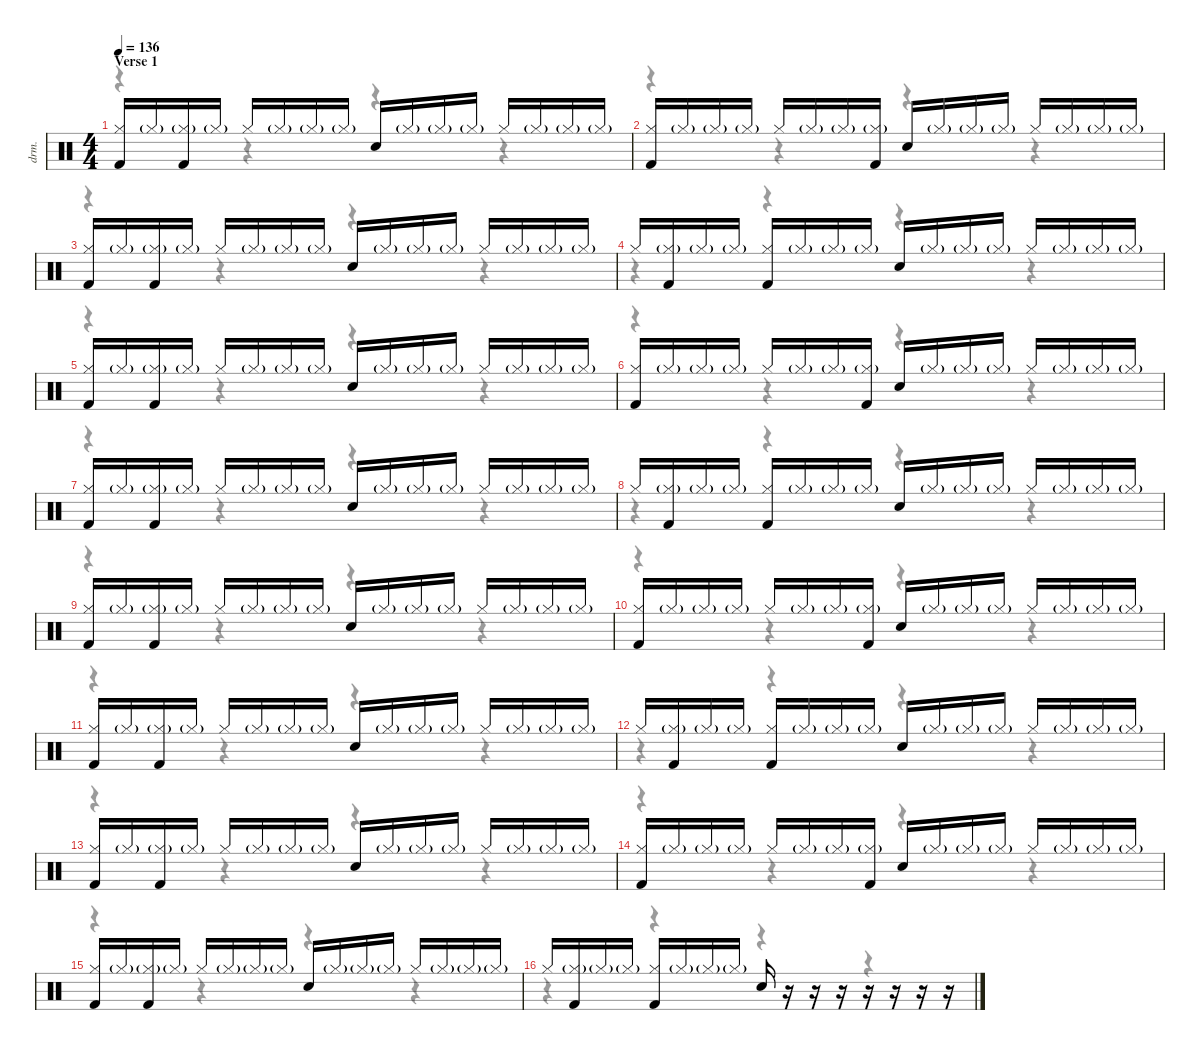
\defaultSystemsLayout 4
\hideDynamics
\bracketExtendMode nobrackets
\track ("Drums" "drm.") {instrument percussion}
\staff {score}
\articulation defaults
\voice
\ts (4 4)
\section ("" "Verse 1")
\tempo 136
\clef neutral
\ks c
("Hi-Hat (closed)" "Kick (hit) 2").16{dy f beam Up} "Hi-Hat (closed)"{g}.16{beam Up} ("Hi-Hat (closed)"{g} "Kick (hit) 2").16{beam Up} "Hi-Hat (closed)"{g}.16{dy ff beam Up} "Hi-Hat (closed)".16{dy f beam Up} "Hi-Hat (closed)"{g}.16{beam Up} "Hi-Hat (closed)"{g}.16{dy ff beam Up} "Hi-Hat (closed)"{g}.16{beam Up} "Snare (hit) 2".16{dy f beam Up} "Hi-Hat (closed)"{g}.16{beam Up} "Hi-Hat (closed)"{g}.16{dy ff beam Up} "Hi-Hat (closed)"{g}.16{beam Up} "Hi-Hat (closed)".16{dy f beam Up} "Hi-Hat (closed)"{g}.16{beam Up} "Hi-Hat (closed)"{g}.16{dy ff beam Up} "Hi-Hat (closed)"{g}.16{beam Up} |
("Hi-Hat (closed)" "Kick (hit) 2").16{dy f beam Up} "Hi-Hat (closed)"{g}.16{beam Up} "Hi-Hat (closed)"{g}.16{dy ff beam Up} "Hi-Hat (closed)"{g}.16{beam Up} "Hi-Hat (closed)".16{dy f beam Up} "Hi-Hat (closed)"{g}.16{beam Up} "Hi-Hat (closed)"{g}.16{dy ff beam Up} ("Hi-Hat (closed)"{g} "Kick (hit) 2").16{dy f beam Up} "Snare (hit) 2".16{beam Up} "Hi-Hat (closed)"{g}.16{beam Up} "Hi-Hat (closed)"{g}.16{dy ff beam Up} "Hi-Hat (closed)"{g}.16{beam Up} "Hi-Hat (closed)".16{dy f beam Up} "Hi-Hat (closed)"{g}.16{beam Up} "Hi-Hat (closed)"{g}.16{dy ff beam Up} "Hi-Hat (closed)"{g}.16{beam Up} |
("Hi-Hat (closed)" "Kick (hit) 2").16{dy f beam Up} "Hi-Hat (closed)"{g}.16{beam Up} ("Hi-Hat (closed)"{g} "Kick (hit) 2").16{beam Up} "Hi-Hat (closed)"{g}.16{dy ff beam Up} "Hi-Hat (closed)".16{dy f beam Up} "Hi-Hat (closed)"{g}.16{beam Up} "Hi-Hat (closed)"{g}.16{dy ff beam Up} "Hi-Hat (closed)"{g}.16{beam Up} "Snare (hit) 2".16{dy f beam Up} "Hi-Hat (closed)"{g}.16{beam Up} "Hi-Hat (closed)"{g}.16{dy ff beam Up} "Hi-Hat (closed)"{g}.16{beam Up} "Hi-Hat (closed)".16{dy f beam Up} "Hi-Hat (closed)"{g}.16{beam Up} "Hi-Hat (closed)"{g}.16{dy ff beam Up} "Hi-Hat (closed)"{g}.16{beam Up} |
"Hi-Hat (closed)".16{dy f beam Up} ("Hi-Hat (closed)"{g} "Kick (hit) 2").16{beam Up} "Hi-Hat (closed)"{g}.16{dy ff beam Up} "Hi-Hat (closed)"{g}.16{beam Up} ("Hi-Hat (closed)" "Kick (hit) 2").16{dy f beam Up} "Hi-Hat (closed)"{g}.16{beam Up} "Hi-Hat (closed)"{g}.16{dy ff beam Up} "Hi-Hat (closed)"{g}.16{beam Up} "Snare (hit) 2".16{dy f beam Up} "Hi-Hat (closed)"{g}.16{beam Up} "Hi-Hat (closed)"{g}.16{dy ff beam Up} "Hi-Hat (closed)"{g}.16{beam Up} "Hi-Hat (closed)".16{dy f beam Up} "Hi-Hat (closed)"{g}.16{beam Up} "Hi-Hat (closed)"{g}.16{dy ff beam Up} "Hi-Hat (closed)"{g}.16{beam Up} |
("Hi-Hat (closed)" "Kick (hit) 2").16{dy f beam Up} "Hi-Hat (closed)"{g}.16{beam Up} ("Hi-Hat (closed)"{g} "Kick (hit) 2").16{beam Up} "Hi-Hat (closed)"{g}.16{dy ff beam Up} "Hi-Hat (closed)".16{dy f beam Up} "Hi-Hat (closed)"{g}.16{beam Up} "Hi-Hat (closed)"{g}.16{dy ff beam Up} "Hi-Hat (closed)"{g}.16{beam Up} "Snare (hit) 2".16{dy f beam Up} "Hi-Hat (closed)"{g}.16{beam Up} "Hi-Hat (closed)"{g}.16{dy ff beam Up} "Hi-Hat (closed)"{g}.16{beam Up} "Hi-Hat (closed)".16{dy f beam Up} "Hi-Hat (closed)"{g}.16{beam Up} "Hi-Hat (closed)"{g}.16{dy ff beam Up} "Hi-Hat (closed)"{g}.16{beam Up} |
("Hi-Hat (closed)" "Kick (hit) 2").16{dy f beam Up} "Hi-Hat (closed)"{g}.16{beam Up} "Hi-Hat (closed)"{g}.16{dy ff beam Up} "Hi-Hat (closed)"{g}.16{beam Up} "Hi-Hat (closed)".16{dy f beam Up} "Hi-Hat (closed)"{g}.16{beam Up} "Hi-Hat (closed)"{g}.16{dy ff beam Up} ("Hi-Hat (closed)"{g} "Kick (hit) 2").16{dy f beam Up} "Snare (hit) 2".16{beam Up} "Hi-Hat (closed)"{g}.16{beam Up} "Hi-Hat (closed)"{g}.16{dy ff beam Up} "Hi-Hat (closed)"{g}.16{beam Up} "Hi-Hat (closed)".16{dy f beam Up} "Hi-Hat (closed)"{g}.16{beam Up} "Hi-Hat (closed)"{g}.16{dy ff beam Up} "Hi-Hat (closed)"{g}.16{beam Up} |
("Hi-Hat (closed)" "Kick (hit) 2").16{dy f beam Up} "Hi-Hat (closed)"{g}.16{beam Up} ("Hi-Hat (closed)"{g} "Kick (hit) 2").16{beam Up} "Hi-Hat (closed)"{g}.16{dy ff beam Up} "Hi-Hat (closed)".16{dy f beam Up} "Hi-Hat (closed)"{g}.16{beam Up} "Hi-Hat (closed)"{g}.16{dy ff beam Up} "Hi-Hat (closed)"{g}.16{beam Up} "Snare (hit) 2".16{dy f beam Up} "Hi-Hat (closed)"{g}.16{beam Up} "Hi-Hat (closed)"{g}.16{dy ff beam Up} "Hi-Hat (closed)"{g}.16{beam Up} "Hi-Hat (closed)".16{dy f beam Up} "Hi-Hat (closed)"{g}.16{beam Up} "Hi-Hat (closed)"{g}.16{dy ff beam Up} "Hi-Hat (closed)"{g}.16{beam Up} |
"Hi-Hat (closed)".16{dy f beam Up} ("Hi-Hat (closed)"{g} "Kick (hit) 2").16{beam Up} "Hi-Hat (closed)"{g}.16{dy ff beam Up} "Hi-Hat (closed)"{g}.16{beam Up} ("Hi-Hat (closed)" "Kick (hit) 2").16{dy f beam Up} "Hi-Hat (closed)"{g}.16{beam Up} "Hi-Hat (closed)"{g}.16{dy ff beam Up} "Hi-Hat (closed)"{g}.16{beam Up} "Snare (hit) 2".16{dy f beam Up} "Hi-Hat (closed)"{g}.16{beam Up} "Hi-Hat (closed)"{g}.16{dy ff beam Up} "Hi-Hat (closed)"{g}.16{beam Up} "Hi-Hat (closed)".16{dy f beam Up} "Hi-Hat (closed)"{g}.16{beam Up} "Hi-Hat (closed)"{g}.16{dy ff beam Up} "Hi-Hat (closed)"{g}.16{beam Up} |
("Hi-Hat (closed)" "Kick (hit) 2").16{dy f beam Up} "Hi-Hat (closed)"{g}.16{beam Up} ("Hi-Hat (closed)"{g} "Kick (hit) 2").16{beam Up} "Hi-Hat (closed)"{g}.16{dy ff beam Up} "Hi-Hat (closed)".16{dy f beam Up} "Hi-Hat (closed)"{g}.16{beam Up} "Hi-Hat (closed)"{g}.16{dy ff beam Up} "Hi-Hat (closed)"{g}.16{beam Up} "Snare (hit) 2".16{dy f beam Up} "Hi-Hat (closed)"{g}.16{beam Up} "Hi-Hat (closed)"{g}.16{dy ff beam Up} "Hi-Hat (closed)"{g}.16{beam Up} "Hi-Hat (closed)".16{dy f beam Up} "Hi-Hat (closed)"{g}.16{beam Up} "Hi-Hat (closed)"{g}.16{dy ff beam Up} "Hi-Hat (closed)"{g}.16{beam Up} |
("Hi-Hat (closed)" "Kick (hit) 2").16{dy f beam Up} "Hi-Hat (closed)"{g}.16{beam Up} "Hi-Hat (closed)"{g}.16{dy ff beam Up} "Hi-Hat (closed)"{g}.16{beam Up} "Hi-Hat (closed)".16{dy f beam Up} "Hi-Hat (closed)"{g}.16{beam Up} "Hi-Hat (closed)"{g}.16{dy ff beam Up} ("Hi-Hat (closed)"{g} "Kick (hit) 2").16{dy f beam Up} "Snare (hit) 2".16{beam Up} "Hi-Hat (closed)"{g}.16{beam Up} "Hi-Hat (closed)"{g}.16{dy ff beam Up} "Hi-Hat (closed)"{g}.16{beam Up} "Hi-Hat (closed)".16{dy f beam Up} "Hi-Hat (closed)"{g}.16{beam Up} "Hi-Hat (closed)"{g}.16{dy ff beam Up} "Hi-Hat (closed)"{g}.16{beam Up} |
("Hi-Hat (closed)" "Kick (hit) 2").16{dy f beam Up} "Hi-Hat (closed)"{g}.16{beam Up} ("Hi-Hat (closed)"{g} "Kick (hit) 2").16{beam Up} "Hi-Hat (closed)"{g}.16{dy ff beam Up} "Hi-Hat (closed)".16{dy f beam Up} "Hi-Hat (closed)"{g}.16{beam Up} "Hi-Hat (closed)"{g}.16{dy ff beam Up} "Hi-Hat (closed)"{g}.16{beam Up} "Snare (hit) 2".16{dy f beam Up} "Hi-Hat (closed)"{g}.16{beam Up} "Hi-Hat (closed)"{g}.16{dy ff beam Up} "Hi-Hat (closed)"{g}.16{beam Up} "Hi-Hat (closed)".16{dy f beam Up} "Hi-Hat (closed)"{g}.16{beam Up} "Hi-Hat (closed)"{g}.16{dy ff beam Up} "Hi-Hat (closed)"{g}.16{beam Up} |
"Hi-Hat (closed)".16{dy f beam Up} ("Hi-Hat (closed)"{g} "Kick (hit) 2").16{beam Up} "Hi-Hat (closed)"{g}.16{dy ff beam Up} "Hi-Hat (closed)"{g}.16{beam Up} ("Hi-Hat (closed)" "Kick (hit) 2").16{dy f beam Up} "Hi-Hat (closed)"{g}.16{beam Up} "Hi-Hat (closed)"{g}.16{dy ff beam Up} "Hi-Hat (closed)"{g}.16{beam Up} "Snare (hit) 2".16{dy f beam Up} "Hi-Hat (closed)"{g}.16{beam Up} "Hi-Hat (closed)"{g}.16{dy ff beam Up} "Hi-Hat (closed)"{g}.16{beam Up} "Hi-Hat (closed)".16{dy f beam Up} "Hi-Hat (closed)"{g}.16{beam Up} "Hi-Hat (closed)"{g}.16{dy ff beam Up} "Hi-Hat (closed)"{g}.16{beam Up} |
("Hi-Hat (closed)" "Kick (hit) 2").16{dy f beam Up} "Hi-Hat (closed)"{g}.16{beam Up} ("Hi-Hat (closed)"{g} "Kick (hit) 2").16{beam Up} "Hi-Hat (closed)"{g}.16{dy ff beam Up} "Hi-Hat (closed)".16{dy f beam Up} "Hi-Hat (closed)"{g}.16{beam Up} "Hi-Hat (closed)"{g}.16{dy ff beam Up} "Hi-Hat (closed)"{g}.16{beam Up} "Snare (hit) 2".16{dy f beam Up} "Hi-Hat (closed)"{g}.16{beam Up} "Hi-Hat (closed)"{g}.16{dy ff beam Up} "Hi-Hat (closed)"{g}.16{beam Up} "Hi-Hat (closed)".16{dy f beam Up} "Hi-Hat (closed)"{g}.16{beam Up} "Hi-Hat (closed)"{g}.16{dy ff beam Up} "Hi-Hat (closed)"{g}.16{beam Up} |
("Hi-Hat (closed)" "Kick (hit) 2").16{dy f beam Up} "Hi-Hat (closed)"{g}.16{beam Up} "Hi-Hat (closed)"{g}.16{dy ff beam Up} "Hi-Hat (closed)"{g}.16{beam Up} "Hi-Hat (closed)".16{dy f beam Up} "Hi-Hat (closed)"{g}.16{beam Up} "Hi-Hat (closed)"{g}.16{dy ff beam Up} ("Hi-Hat (closed)"{g} "Kick (hit) 2").16{dy f beam Up} "Snare (hit) 2".16{beam Up} "Hi-Hat (closed)"{g}.16{beam Up} "Hi-Hat (closed)"{g}.16{dy ff beam Up} "Hi-Hat (closed)"{g}.16{beam Up} "Hi-Hat (closed)".16{dy f beam Up} "Hi-Hat (closed)"{g}.16{beam Up} "Hi-Hat (closed)"{g}.16{dy ff beam Up} "Hi-Hat (closed)"{g}.16{beam Up} |
("Hi-Hat (closed)" "Kick (hit) 2").16{dy f beam Up} "Hi-Hat (closed)"{g}.16{beam Up} ("Hi-Hat (closed)"{g} "Kick (hit) 2").16{beam Up} "Hi-Hat (closed)"{g}.16{dy ff beam Up} "Hi-Hat (closed)".16{dy f beam Up} "Hi-Hat (closed)"{g}.16{beam Up} "Hi-Hat (closed)"{g}.16{dy ff beam Up} "Hi-Hat (closed)"{g}.16{beam Up} "Snare (hit) 2".16{dy f beam Up} "Hi-Hat (closed)"{g}.16{beam Up} "Hi-Hat (closed)"{g}.16{dy ff beam Up} "Hi-Hat (closed)"{g}.16{beam Up} "Hi-Hat (closed)".16{dy f beam Up} "Hi-Hat (closed)"{g}.16{beam Up} "Hi-Hat (closed)"{g}.16{dy ff beam Up} "Hi-Hat (closed)"{g}.16{beam Up} |
"Hi-Hat (closed)".16{dy f beam Up} ("Hi-Hat (closed)"{g} "Kick (hit) 2").16{beam Up} "Hi-Hat (closed)"{g}.16{dy ff beam Up} "Hi-Hat (closed)"{g}.16{beam Up} ("Hi-Hat (closed)" "Kick (hit) 2").16{dy f beam Up} "Hi-Hat (closed)"{g}.16{beam Up} "Hi-Hat (closed)"{g}.16{dy ff beam Up} "Hi-Hat (closed)"{g}.16{beam Up} "Snare (hit) 2".16{dy f beam Up} r.16{beam Up} r.16{beam Up} r.16{beam Up} r.16{beam Up} r.16{beam Up} r.16{beam Up} r.16{beam Up}
\voice
\clef neutral
\ottava regular
\simile none
\ks c
r.4{dy mf beam Down} r.4{beam Down} r.4{beam Down} r.4{beam Down} |
r.4{beam Down} r.4{beam Down} r.4{beam Down} r.4{beam Down} |
r.4{beam Down} r.4{beam Down} r.4{beam Down} r.4{beam Down} |
r.4{beam Down} r.4{beam Down} r.4{beam Down} r.4{beam Down} |
r.4{beam Down} r.4{beam Down} r.4{beam Down} r.4{beam Down} |
r.4{beam Down} r.4{beam Down} r.4{beam Down} r.4{beam Down} |
r.4{beam Down} r.4{beam Down} r.4{beam Down} r.4{beam Down} |
r.4{beam Down} r.4{beam Down} r.4{beam Down} r.4{beam Down} |
r.4{beam Down} r.4{beam Down} r.4{beam Down} r.4{beam Down} |
r.4{beam Down} r.4{beam Down} r.4{beam Down} r.4{beam Down} |
r.4{beam Down} r.4{beam Down} r.4{beam Down} r.4{beam Down} |
r.4{beam Down} r.4{beam Down} r.4{beam Down} r.4{beam Down} |
r.4{beam Down} r.4{beam Down} r.4{beam Down} r.4{beam Down} |
r.4{beam Down} r.4{beam Down} r.4{beam Down} r.4{beam Down} |
r.4{beam Down} r.4{beam Down} r.4{beam Down} r.4{beam Down} |
r.4{beam Down} r.4{beam Down} r.4{beam Down} r.4{beam Down}
